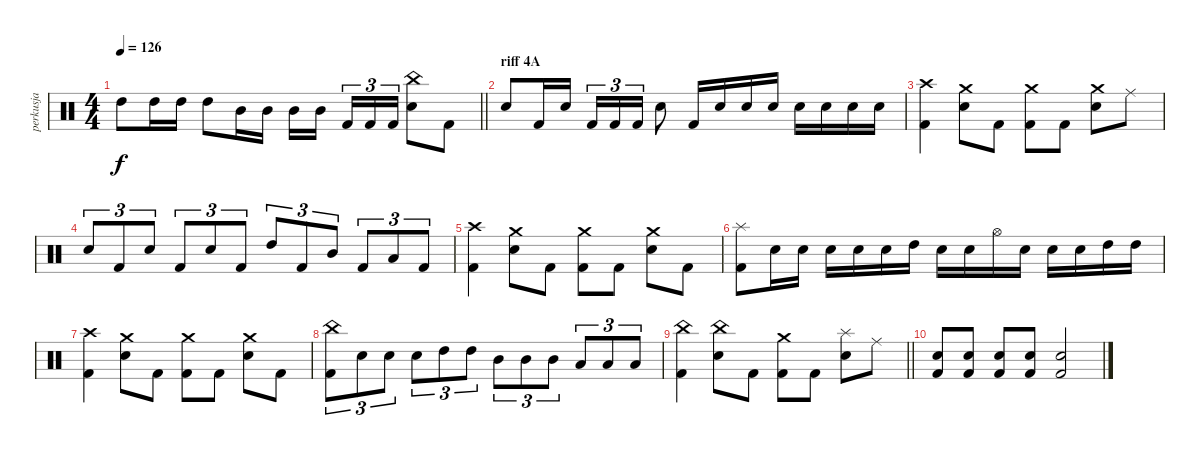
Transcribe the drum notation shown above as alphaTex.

\track ("perkusja" "perkusja") {instrument percussion}
\staff {score}
\articulation defaults
\ts (4 4)
\tempo 126
\clef neutral
\barLineRight lightlight
\ks c "High Tom (hit)".8{dy f} "High Tom (hit)".16 "High Tom (hit)".16 "High Tom (hit)".8 "Mid Tom (hit)".16 "Mid Tom (hit)".16 "Mid Tom (hit)".16 "Mid Tom (hit)".16{beam splitsecondary} "Kick (hit) 2".16{tu (3 2)} "Kick (hit) 2".16{tu (3 2)} "Kick (hit) 2".16{tu (3 2)}
("China (hit)" "Electric Snare (hit)").8 "Kick (hit) 2".8 |
\section ("" "riff 4A")
"Electric Snare (hit)".8 "Kick (hit) 2".16 "Electric Snare (hit)".16 "Kick (hit) 2".16{tu (3 2)} "Kick (hit) 2".16{tu (3 2)} "Kick (hit) 2".16{tu (3 2)} "Electric Snare (hit)".8 "Kick (hit) 2".16 "Electric Snare (hit)".16 "Electric Snare (hit)".16 "Electric Snare (hit)".16 "Electric Snare (hit)".16 "Electric Snare (hit)".16 "Electric Snare (hit)".16 "Electric Snare (hit)".16 |
("Crash high (hit)" "Kick (hit) 2").4 ("Crash medium (hit)" "Electric Snare (hit)").8 "Kick (hit) 2".8 ("Crash medium (hit)" "Kick (hit) 2").8 "Kick (hit) 2".8 ("Crash medium (hit)" "Electric Snare (hit)").8 "Ride (middle)".8 |
"Electric Snare (hit)".8{tu (3 2)} "Kick (hit) 2".8{tu (3 2)} "Electric Snare (hit)".8{tu (3 2)} "Kick (hit) 2".8{tu (3 2)} "Electric Snare (hit)".8{tu (3 2)} "Kick (hit) 2".8{tu (3 2)} "High Tom (hit)".8{tu (3 2)} "Kick (hit) 2".8{tu (3 2)} "Mid Tom (hit)".8{tu (3 2)} "Kick (hit) 2".8{tu (3 2)} "Low Tom (hit)".8{tu (3 2)} "Kick (hit) 2".8{tu (3 2)} |
("Crash high (hit)" "Kick (hit) 2").4 ("Crash medium (hit)" "Electric Snare (hit)").8 "Kick (hit) 2".8 ("Crash medium (hit)" "Kick (hit) 2").8 "Kick (hit) 2".8 ("Crash medium (hit)" "Electric Snare (hit)").8 "Kick (hit) 2".8 |
("Splash (hit)" "Kick (hit) 2").8 "Electric Snare (hit)".16 "Electric Snare (hit)".16 "Electric Snare (hit)".16 "Electric Snare (hit)".16 "Electric Snare (hit)".16 "High Tom (hit)".16 "Electric Snare (hit)".16 "Electric Snare (hit)".16 "Hi-Hat (open)".16 "Electric Snare (hit)".16 "Electric Snare (hit)".16 "Electric Snare (hit)".16 "High Tom (hit)".16 "High Tom (hit)".16 |
("Crash high (hit)" "Kick (hit) 2").4 ("Crash medium (hit)" "Electric Snare (hit)").8 "Kick (hit) 2".8 ("Crash medium (hit)" "Kick (hit) 2").8 "Kick (hit) 2".8 ("Crash medium (hit)" "Electric Snare (hit)").8 "Kick (hit) 2".8 |
("China (hit)" "Kick (hit) 2").8{tu (3 2)} "Electric Snare (hit)".8{tu (3 2)} "Electric Snare (hit)".8{tu (3 2)} "Electric Snare (hit)".8{tu (3 2)} "High Tom (hit)".8{tu (3 2)} "High Tom (hit)".8{tu (3 2)} "Mid Tom (hit)".8{tu (3 2)} "Mid Tom (hit)".8{tu (3 2)} "Mid Tom (hit)".8{tu (3 2)} "Low Tom (hit)".8{tu (3 2)} "Low Tom (hit)".8{tu (3 2)} "Low Tom (hit)".8{tu (3 2)} |
\barLineRight lightlight
("China (hit)" "Kick (hit) 2").4 ("China (hit)" "Electric Snare (hit)").8 "Kick (hit) 2".8 ("Crash medium (hit)" "Kick (hit) 2").8 "Kick (hit) 2".8 ("Splash (hit)" "Electric Snare (hit)").8 "Ride (middle)".8 |
("Electric Snare (hit)" "Kick (hit) 2").8 ("Electric Snare (hit)" "Kick (hit) 2").8 ("Electric Snare (hit)" "Kick (hit) 2").8 ("Electric Snare (hit)" "Kick (hit) 2").8 ("Electric Snare (hit)" "Kick (hit) 2").2
